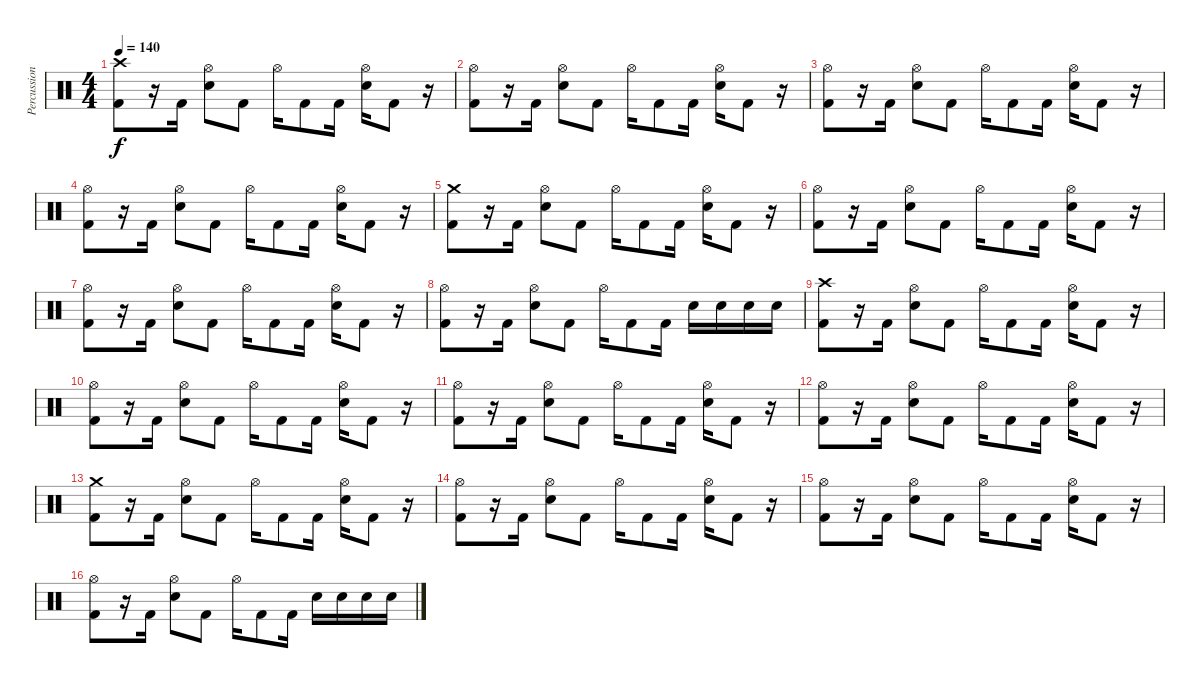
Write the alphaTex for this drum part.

\track ("Percussion" "Percussion") {instrument percussion}
\staff {score}
\articulation defaults
\ts (4 4)
\tempo 140
\clef neutral
\ks c
("Crash high (hit)" "Kick (hit) 2").8{dy f} r.16 "Kick (hit) 2".16 ("Hi-Hat (open)" "Electric Snare (hit)").8 "Kick (hit) 2".8 "Hi-Hat (open)".16 "Kick (hit) 2".8 "Kick (hit) 2".16 ("Hi-Hat (open)" "Electric Snare (hit)").16 "Kick (hit) 2".8 r.16 |
("Hi-Hat (open)" "Kick (hit) 2").8 r.16 "Kick (hit) 2".16 ("Hi-Hat (open)" "Electric Snare (hit)").8 "Kick (hit) 2".8 "Hi-Hat (open)".16 "Kick (hit) 2".8 "Kick (hit) 2".16 ("Hi-Hat (open)" "Electric Snare (hit)").16 "Kick (hit) 2".8 r.16 |
("Hi-Hat (open)" "Kick (hit) 2").8 r.16 "Kick (hit) 2".16 ("Hi-Hat (open)" "Electric Snare (hit)").8 "Kick (hit) 2".8 "Hi-Hat (open)".16 "Kick (hit) 2".8 "Kick (hit) 2".16 ("Hi-Hat (open)" "Electric Snare (hit)").16 "Kick (hit) 2".8 r.16 |
("Hi-Hat (open)" "Kick (hit) 2").8 r.16 "Kick (hit) 2".16 ("Hi-Hat (open)" "Electric Snare (hit)").8 "Kick (hit) 2".8 "Hi-Hat (open)".16 "Kick (hit) 2".8 "Kick (hit) 2".16 ("Hi-Hat (open)" "Electric Snare (hit)").16 "Kick (hit) 2".8 r.16 |
("Crash medium (hit)" "Kick (hit) 2").8 r.16 "Kick (hit) 2".16 ("Hi-Hat (open)" "Electric Snare (hit)").8 "Kick (hit) 2".8 "Hi-Hat (open)".16 "Kick (hit) 2".8 "Kick (hit) 2".16 ("Hi-Hat (open)" "Electric Snare (hit)").16 "Kick (hit) 2".8 r.16 |
("Hi-Hat (open)" "Kick (hit) 2").8 r.16 "Kick (hit) 2".16 ("Hi-Hat (open)" "Electric Snare (hit)").8 "Kick (hit) 2".8 "Hi-Hat (open)".16 "Kick (hit) 2".8 "Kick (hit) 2".16 ("Hi-Hat (open)" "Electric Snare (hit)").16 "Kick (hit) 2".8 r.16 |
("Hi-Hat (open)" "Kick (hit) 2").8 r.16 "Kick (hit) 2".16 ("Hi-Hat (open)" "Electric Snare (hit)").8 "Kick (hit) 2".8 "Hi-Hat (open)".16 "Kick (hit) 2".8 "Kick (hit) 2".16 ("Hi-Hat (open)" "Electric Snare (hit)").16 "Kick (hit) 2".8 r.16 |
("Hi-Hat (open)" "Kick (hit) 2").8 r.16 "Kick (hit) 2".16 ("Hi-Hat (open)" "Electric Snare (hit)").8 "Kick (hit) 2".8 "Hi-Hat (open)".16 "Kick (hit) 2".8 "Kick (hit) 2".16 "Electric Snare (hit)".16 "Electric Snare (hit)".16 "Electric Snare (hit)".16 "Electric Snare (hit)".16 |
("Crash high (hit)" "Kick (hit) 2").8 r.16 "Kick (hit) 2".16 ("Hi-Hat (open)" "Electric Snare (hit)").8 "Kick (hit) 2".8 "Hi-Hat (open)".16 "Kick (hit) 2".8 "Kick (hit) 2".16 ("Hi-Hat (open)" "Electric Snare (hit)").16 "Kick (hit) 2".8 r.16 |
("Hi-Hat (open)" "Kick (hit) 2").8 r.16 "Kick (hit) 2".16 ("Hi-Hat (open)" "Electric Snare (hit)").8 "Kick (hit) 2".8 "Hi-Hat (open)".16 "Kick (hit) 2".8 "Kick (hit) 2".16 ("Hi-Hat (open)" "Electric Snare (hit)").16 "Kick (hit) 2".8 r.16 |
("Hi-Hat (open)" "Kick (hit) 2").8 r.16 "Kick (hit) 2".16 ("Hi-Hat (open)" "Electric Snare (hit)").8 "Kick (hit) 2".8 "Hi-Hat (open)".16 "Kick (hit) 2".8 "Kick (hit) 2".16 ("Hi-Hat (open)" "Electric Snare (hit)").16 "Kick (hit) 2".8 r.16 |
("Hi-Hat (open)" "Kick (hit) 2").8 r.16 "Kick (hit) 2".16 ("Hi-Hat (open)" "Electric Snare (hit)").8 "Kick (hit) 2".8 "Hi-Hat (open)".16 "Kick (hit) 2".8 "Kick (hit) 2".16 ("Hi-Hat (open)" "Electric Snare (hit)").16 "Kick (hit) 2".8 r.16 |
("Crash medium (hit)" "Kick (hit) 2").8 r.16 "Kick (hit) 2".16 ("Hi-Hat (open)" "Electric Snare (hit)").8 "Kick (hit) 2".8 "Hi-Hat (open)".16 "Kick (hit) 2".8 "Kick (hit) 2".16 ("Hi-Hat (open)" "Electric Snare (hit)").16 "Kick (hit) 2".8 r.16 |
("Hi-Hat (open)" "Kick (hit) 2").8 r.16 "Kick (hit) 2".16 ("Hi-Hat (open)" "Electric Snare (hit)").8 "Kick (hit) 2".8 "Hi-Hat (open)".16 "Kick (hit) 2".8 "Kick (hit) 2".16 ("Hi-Hat (open)" "Electric Snare (hit)").16 "Kick (hit) 2".8 r.16 |
("Hi-Hat (open)" "Kick (hit) 2").8 r.16 "Kick (hit) 2".16 ("Hi-Hat (open)" "Electric Snare (hit)").8 "Kick (hit) 2".8 "Hi-Hat (open)".16 "Kick (hit) 2".8 "Kick (hit) 2".16 ("Hi-Hat (open)" "Electric Snare (hit)").16 "Kick (hit) 2".8 r.16 |
("Hi-Hat (open)" "Kick (hit) 2").8 r.16 "Kick (hit) 2".16 ("Hi-Hat (open)" "Electric Snare (hit)").8 "Kick (hit) 2".8 "Hi-Hat (open)".16 "Kick (hit) 2".8 "Kick (hit) 2".16 "Electric Snare (hit)".16 "Electric Snare (hit)".16 "Electric Snare (hit)".16 "Electric Snare (hit)".16
